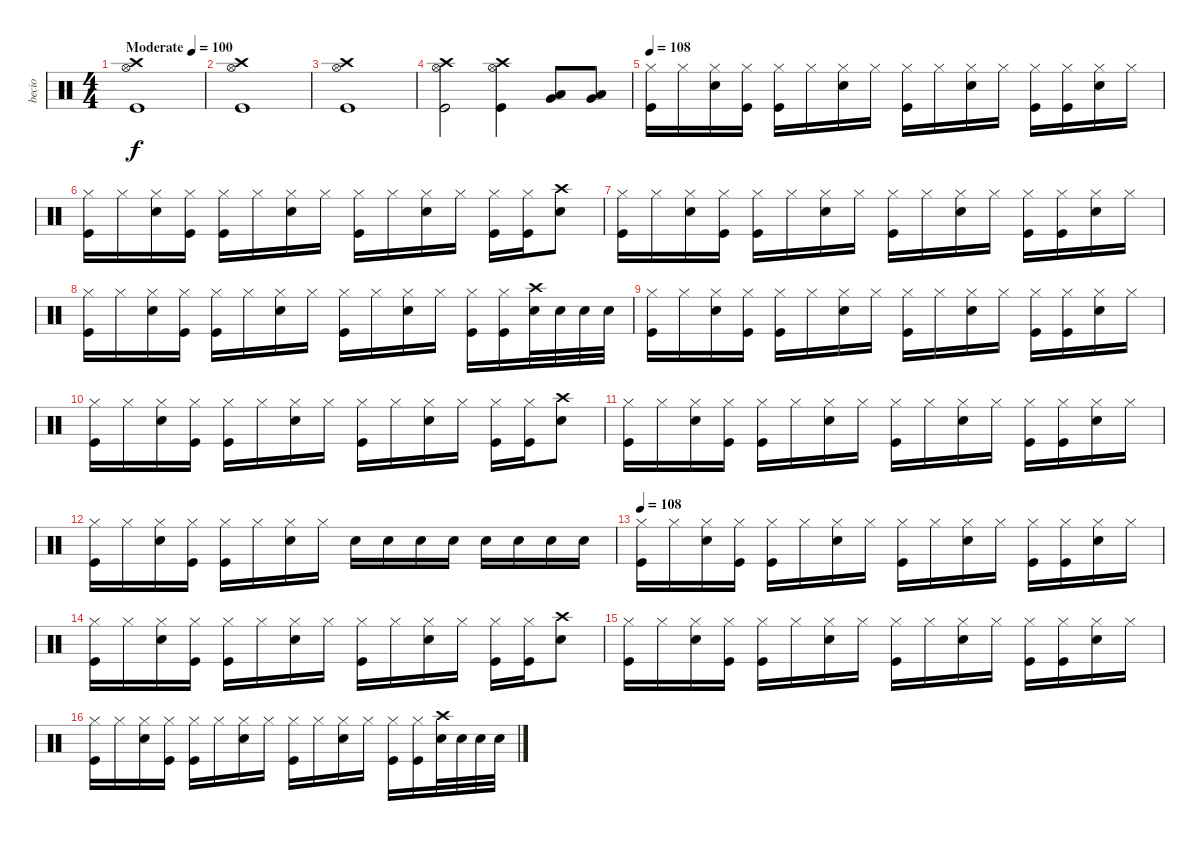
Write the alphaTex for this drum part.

\track ("becio" "becio") {instrument percussion}
\staff {score}
\articulation defaults
\ts (4 4)
\tempo (100 "Moderate")
\clef neutral
\ks c
("Kick (hit)" "Hi-Hat (open)" "Crash high (hit)").1{dy f} |
("Kick (hit)" "Hi-Hat (open)" "Crash high (hit)").1 |
("Kick (hit)" "Hi-Hat (open)" "Crash high (hit)").1 |
("Kick (hit)" "Hi-Hat (open)" "Crash high (hit)").2 ("Kick (hit)" "Hi-Hat (open)" "Crash high (hit)").4 ("Low Tom (hit)" "Very Low Tom (hit)").8 ("Low Tom (hit)" "Very Low Tom (hit)").8 |
\tempo 108
("Kick (hit)" "Hi-Hat (closed)").16 "Hi-Hat (closed)".16 ("Electric Snare (hit)" "Hi-Hat (closed)").16 ("Kick (hit)" "Hi-Hat (closed)").16 ("Kick (hit)" "Hi-Hat (closed)").16 "Hi-Hat (closed)".16 ("Electric Snare (hit)" "Hi-Hat (closed)").16 "Hi-Hat (closed)".16 ("Kick (hit)" "Hi-Hat (closed)").16 "Hi-Hat (closed)".16 ("Electric Snare (hit)" "Hi-Hat (closed)").16 "Hi-Hat (closed)".16 ("Kick (hit)" "Hi-Hat (closed)").16 ("Kick (hit)" "Hi-Hat (closed)").16 ("Electric Snare (hit)" "Hi-Hat (closed)").16 "Hi-Hat (closed)".16 |
("Kick (hit)" "Hi-Hat (closed)").16 "Hi-Hat (closed)".16 ("Electric Snare (hit)" "Hi-Hat (closed)").16 ("Kick (hit)" "Hi-Hat (closed)").16 ("Kick (hit)" "Hi-Hat (closed)").16 "Hi-Hat (closed)".16 ("Electric Snare (hit)" "Hi-Hat (closed)").16 "Hi-Hat (closed)".16 ("Kick (hit)" "Hi-Hat (closed)").16 "Hi-Hat (closed)".16 ("Electric Snare (hit)" "Hi-Hat (closed)").16 "Hi-Hat (closed)".16 ("Kick (hit)" "Hi-Hat (closed)").16 ("Kick (hit)" "Hi-Hat (closed)").16 ("Electric Snare (hit)" "Crash high (hit)").8 |
("Kick (hit)" "Hi-Hat (closed)").16 "Hi-Hat (closed)".16 ("Electric Snare (hit)" "Hi-Hat (closed)").16 ("Kick (hit)" "Hi-Hat (closed)").16 ("Kick (hit)" "Hi-Hat (closed)").16 "Hi-Hat (closed)".16 ("Electric Snare (hit)" "Hi-Hat (closed)").16 "Hi-Hat (closed)".16 ("Kick (hit)" "Hi-Hat (closed)").16 "Hi-Hat (closed)".16 ("Electric Snare (hit)" "Hi-Hat (closed)").16 "Hi-Hat (closed)".16 ("Kick (hit)" "Hi-Hat (closed)").16 ("Kick (hit)" "Hi-Hat (closed)").16 ("Electric Snare (hit)" "Hi-Hat (closed)").16 "Hi-Hat (closed)".16 |
("Kick (hit)" "Hi-Hat (closed)").16 "Hi-Hat (closed)".16 ("Electric Snare (hit)" "Hi-Hat (closed)").16 ("Kick (hit)" "Hi-Hat (closed)").16 ("Kick (hit)" "Hi-Hat (closed)").16 "Hi-Hat (closed)".16 ("Electric Snare (hit)" "Hi-Hat (closed)").16 "Hi-Hat (closed)".16 ("Kick (hit)" "Hi-Hat (closed)").16 "Hi-Hat (closed)".16 ("Electric Snare (hit)" "Hi-Hat (closed)").16 "Hi-Hat (closed)".16 ("Kick (hit)" "Hi-Hat (closed)").16 ("Kick (hit)" "Hi-Hat (closed)").16 ("Electric Snare (hit)" "Crash high (hit)").32 "Electric Snare (hit)".32 "Electric Snare (hit)".32 "Electric Snare (hit)".32 |
("Kick (hit)" "Hi-Hat (closed)").16 "Hi-Hat (closed)".16 ("Electric Snare (hit)" "Hi-Hat (closed)").16 ("Kick (hit)" "Hi-Hat (closed)").16 ("Kick (hit)" "Hi-Hat (closed)").16 "Hi-Hat (closed)".16 ("Electric Snare (hit)" "Hi-Hat (closed)").16 "Hi-Hat (closed)".16 ("Kick (hit)" "Hi-Hat (closed)").16 "Hi-Hat (closed)".16 ("Electric Snare (hit)" "Hi-Hat (closed)").16 "Hi-Hat (closed)".16 ("Kick (hit)" "Hi-Hat (closed)").16 ("Kick (hit)" "Hi-Hat (closed)").16 ("Electric Snare (hit)" "Hi-Hat (closed)").16 "Hi-Hat (closed)".16 |
("Kick (hit)" "Hi-Hat (closed)").16 "Hi-Hat (closed)".16 ("Electric Snare (hit)" "Hi-Hat (closed)").16 ("Kick (hit)" "Hi-Hat (closed)").16 ("Kick (hit)" "Hi-Hat (closed)").16 "Hi-Hat (closed)".16 ("Electric Snare (hit)" "Hi-Hat (closed)").16 "Hi-Hat (closed)".16 ("Kick (hit)" "Hi-Hat (closed)").16 "Hi-Hat (closed)".16 ("Electric Snare (hit)" "Hi-Hat (closed)").16 "Hi-Hat (closed)".16 ("Kick (hit)" "Hi-Hat (closed)").16 ("Kick (hit)" "Hi-Hat (closed)").16 ("Electric Snare (hit)" "Crash high (hit)").8 |
("Kick (hit)" "Hi-Hat (closed)").16 "Hi-Hat (closed)".16 ("Electric Snare (hit)" "Hi-Hat (closed)").16 ("Kick (hit)" "Hi-Hat (closed)").16 ("Kick (hit)" "Hi-Hat (closed)").16 "Hi-Hat (closed)".16 ("Electric Snare (hit)" "Hi-Hat (closed)").16 "Hi-Hat (closed)".16 ("Kick (hit)" "Hi-Hat (closed)").16 "Hi-Hat (closed)".16 ("Electric Snare (hit)" "Hi-Hat (closed)").16 "Hi-Hat (closed)".16 ("Kick (hit)" "Hi-Hat (closed)").16 ("Kick (hit)" "Hi-Hat (closed)").16 ("Electric Snare (hit)" "Hi-Hat (closed)").16 "Hi-Hat (closed)".16 |
("Kick (hit)" "Hi-Hat (closed)").16 "Hi-Hat (closed)".16 ("Electric Snare (hit)" "Hi-Hat (closed)").16 ("Kick (hit)" "Hi-Hat (closed)").16 ("Kick (hit)" "Hi-Hat (closed)").16 "Hi-Hat (closed)".16 ("Electric Snare (hit)" "Hi-Hat (closed)").16 "Hi-Hat (closed)".16 "Electric Snare (hit)".16 "Electric Snare (hit)".16 "Electric Snare (hit)".16 "Electric Snare (hit)".16 "Electric Snare (hit)".16 "Electric Snare (hit)".16 "Electric Snare (hit)".16 "Electric Snare (hit)".16 |
\tempo 108
("Kick (hit)" "Hi-Hat (closed)").16 "Hi-Hat (closed)".16 ("Electric Snare (hit)" "Hi-Hat (closed)").16 ("Kick (hit)" "Hi-Hat (closed)").16 ("Kick (hit)" "Hi-Hat (closed)").16 "Hi-Hat (closed)".16 ("Electric Snare (hit)" "Hi-Hat (closed)").16 "Hi-Hat (closed)".16 ("Kick (hit)" "Hi-Hat (closed)").16 "Hi-Hat (closed)".16 ("Electric Snare (hit)" "Hi-Hat (closed)").16 "Hi-Hat (closed)".16 ("Kick (hit)" "Hi-Hat (closed)").16 ("Kick (hit)" "Hi-Hat (closed)").16 ("Electric Snare (hit)" "Hi-Hat (closed)").16 "Hi-Hat (closed)".16 |
("Kick (hit)" "Hi-Hat (closed)").16 "Hi-Hat (closed)".16 ("Electric Snare (hit)" "Hi-Hat (closed)").16 ("Kick (hit)" "Hi-Hat (closed)").16 ("Kick (hit)" "Hi-Hat (closed)").16 "Hi-Hat (closed)".16 ("Electric Snare (hit)" "Hi-Hat (closed)").16 "Hi-Hat (closed)".16 ("Kick (hit)" "Hi-Hat (closed)").16 "Hi-Hat (closed)".16 ("Electric Snare (hit)" "Hi-Hat (closed)").16 "Hi-Hat (closed)".16 ("Kick (hit)" "Hi-Hat (closed)").16 ("Kick (hit)" "Hi-Hat (closed)").16 ("Electric Snare (hit)" "Crash high (hit)").8 |
("Kick (hit)" "Hi-Hat (closed)").16 "Hi-Hat (closed)".16 ("Electric Snare (hit)" "Hi-Hat (closed)").16 ("Kick (hit)" "Hi-Hat (closed)").16 ("Kick (hit)" "Hi-Hat (closed)").16 "Hi-Hat (closed)".16 ("Electric Snare (hit)" "Hi-Hat (closed)").16 "Hi-Hat (closed)".16 ("Kick (hit)" "Hi-Hat (closed)").16 "Hi-Hat (closed)".16 ("Electric Snare (hit)" "Hi-Hat (closed)").16 "Hi-Hat (closed)".16 ("Kick (hit)" "Hi-Hat (closed)").16 ("Kick (hit)" "Hi-Hat (closed)").16 ("Electric Snare (hit)" "Hi-Hat (closed)").16 "Hi-Hat (closed)".16 |
("Kick (hit)" "Hi-Hat (closed)").16 "Hi-Hat (closed)".16 ("Electric Snare (hit)" "Hi-Hat (closed)").16 ("Kick (hit)" "Hi-Hat (closed)").16 ("Kick (hit)" "Hi-Hat (closed)").16 "Hi-Hat (closed)".16 ("Electric Snare (hit)" "Hi-Hat (closed)").16 "Hi-Hat (closed)".16 ("Kick (hit)" "Hi-Hat (closed)").16 "Hi-Hat (closed)".16 ("Electric Snare (hit)" "Hi-Hat (closed)").16 "Hi-Hat (closed)".16 ("Kick (hit)" "Hi-Hat (closed)").16 ("Kick (hit)" "Hi-Hat (closed)").16 ("Electric Snare (hit)" "Crash high (hit)").32 "Electric Snare (hit)".32 "Electric Snare (hit)".32 "Electric Snare (hit)".32
